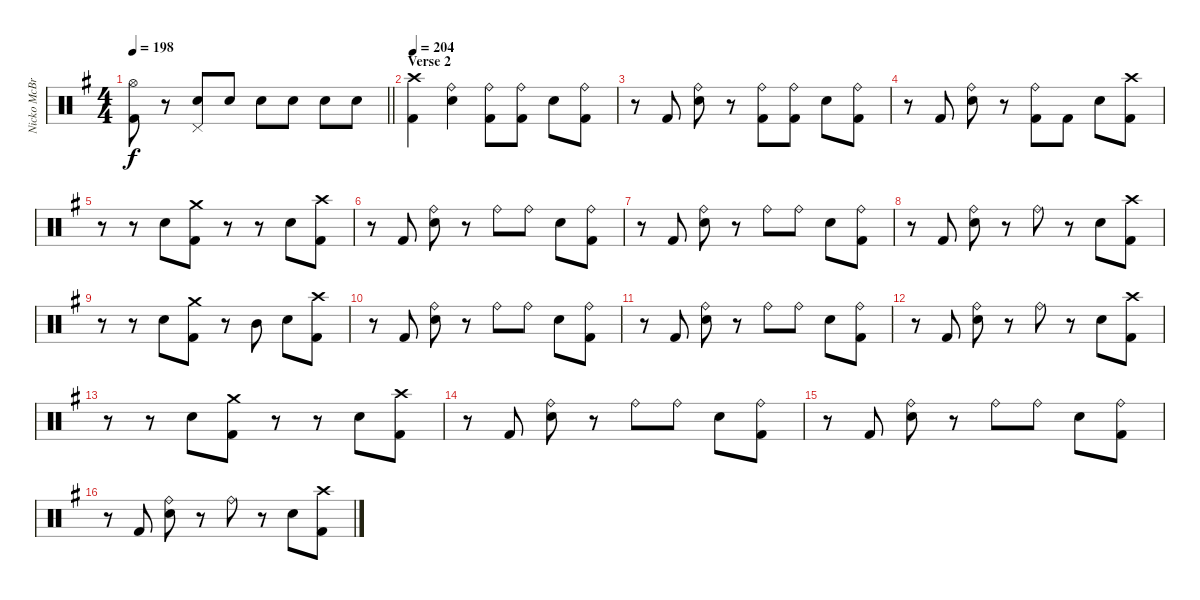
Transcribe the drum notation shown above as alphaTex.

\track ("Nicko McBrain (Drums)" "Nicko McBr") {instrument percussion}
\staff {score}
\articulation defaults
\ts (4 4)
\tempo 198
\clef neutral
\barLineRight lightlight
\ks eminor
("Hi-Hat (open)" "Kick (hit) 2").8{dy f} r.8 ("Pedal Hi-Hat (hit)" "Snare (hit) 2").8 "Snare (hit) 2".8 "Snare (hit) 2".8 "Snare (hit) 2".8 "Snare (hit) 2".8 "Snare (hit) 2".8 |
\section ("" "Verse 2")
\tempo 204
("Crash high (hit)" "Kick (hit) 2").4 ("Ride (bell)" "Snare (hit) 2").4 ("Ride (bell)" "Kick (hit) 2").8 ("Ride (bell)" "Kick (hit) 2").8 "Snare (hit) 2".8 ("Ride (bell)" "Kick (hit) 2").8 |
r.8 "Kick (hit) 2".8 ("Ride (bell)" "Snare (hit) 2").8 r.8 ("Ride (bell)" "Kick (hit) 2").8 ("Ride (bell)" "Kick (hit) 2").8 "Snare (hit) 2".8 ("Ride (bell)" "Kick (hit) 2").8 |
r.8 "Kick (hit) 2".8 ("Ride (bell)" "Snare (hit) 2").8 r.8 ("Ride (bell)" "Kick (hit) 2").8 "Kick (hit) 2".8 "Snare (hit) 2".8 ("Crash high (hit)" "Kick (hit) 2").8 |
r.8 r.8 "Snare (hit) 2".8 ("Crash medium (hit)" "Kick (hit) 2").8 r.8 r.8 "Snare (hit) 2".8 ("Crash high (hit)" "Kick (hit) 2").8 |
r.8 "Kick (hit) 2".8 ("Ride (bell)" "Snare (hit) 2").8 r.8 "Ride (bell)".8 "Ride (bell)".8 "Snare (hit) 2".8 ("Ride (bell)" "Kick (hit) 2").8 |
r.8 "Kick (hit) 2".8 ("Ride (bell)" "Snare (hit) 2").8 r.8 "Ride (bell)".8 "Ride (bell)".8 "Snare (hit) 2".8 ("Ride (bell)" "Kick (hit) 2").8 |
r.8 "Kick (hit) 2".8 ("Ride (bell)" "Snare (hit) 2").8 r.8 "Ride (bell)".8 r.8 "Snare (hit) 2".8 ("Crash high (hit)" "Kick (hit) 2").8 |
r.8 r.8 "Snare (hit) 2".8 ("Crash medium (hit)" "Kick (hit) 2").8 r.8 "Mid Tom (hit)".8 "Snare (hit) 2".8 ("Crash high (hit)" "Kick (hit) 2").8 |
r.8 "Kick (hit) 2".8 ("Ride (bell)" "Snare (hit) 2").8 r.8 "Ride (bell)".8 "Ride (bell)".8 "Snare (hit) 2".8 ("Ride (bell)" "Kick (hit) 2").8 |
r.8 "Kick (hit) 2".8 ("Ride (bell)" "Snare (hit) 2").8 r.8 "Ride (bell)".8 "Ride (bell)".8 "Snare (hit) 2".8 ("Ride (bell)" "Kick (hit) 2").8 |
r.8 "Kick (hit) 2".8 ("Ride (bell)" "Snare (hit) 2").8 r.8 "Ride (bell)".8 r.8 "Snare (hit) 2".8 ("Crash high (hit)" "Kick (hit) 2").8 |
r.8 r.8 "Snare (hit) 2".8 ("Crash medium (hit)" "Kick (hit) 2").8 r.8 r.8 "Snare (hit) 2".8 ("Crash high (hit)" "Kick (hit) 2").8 |
r.8 "Kick (hit) 2".8 ("Ride (bell)" "Snare (hit) 2").8 r.8 "Ride (bell)".8 "Ride (bell)".8 "Snare (hit) 2".8 ("Ride (bell)" "Kick (hit) 2").8 |
r.8 "Kick (hit) 2".8 ("Ride (bell)" "Snare (hit) 2").8 r.8 "Ride (bell)".8 "Ride (bell)".8 "Snare (hit) 2".8 ("Ride (bell)" "Kick (hit) 2").8 |
r.8 "Kick (hit) 2".8 ("Ride (bell)" "Snare (hit) 2").8 r.8 "Ride (bell)".8 r.8 "Snare (hit) 2".8 ("Crash high (hit)" "Kick (hit) 2").8
